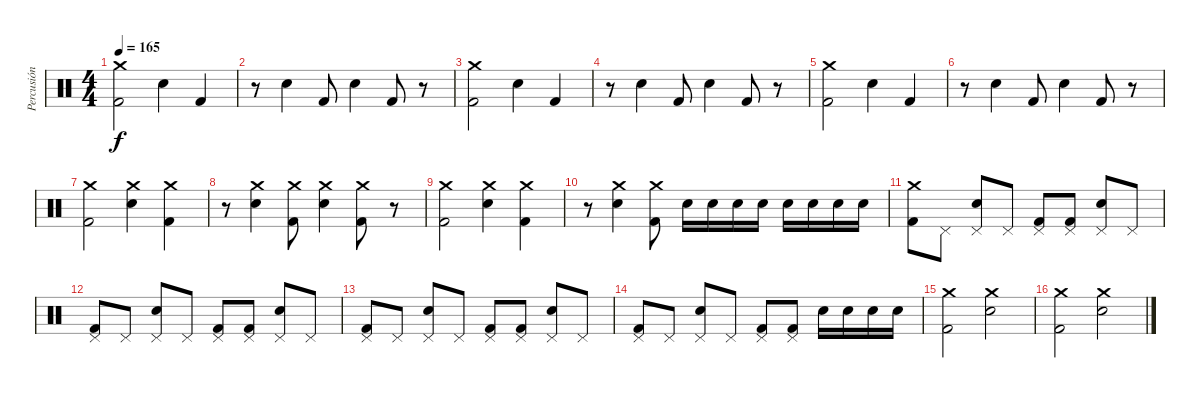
\track ("Percusión" "Percusión") {instrument percussion}
\staff {score}
\articulation defaults
\ts (4 4)
\tempo 165
\clef neutral
\ks c
("Crash medium (hit)" "Kick (hit) 2").2{dy f} "Electric Snare (hit)".4 "Kick (hit) 2".4 |
r.8 "Electric Snare (hit)".4 "Kick (hit) 2".8 "Electric Snare (hit)".4 "Kick (hit) 2".8 r.8 |
("Crash medium (hit)" "Kick (hit) 2").2 "Electric Snare (hit)".4 "Kick (hit) 2".4 |
r.8 "Electric Snare (hit)".4 "Kick (hit) 2".8 "Electric Snare (hit)".4 "Kick (hit) 2".8 r.8 |
("Crash medium (hit)" "Kick (hit) 2").2 "Electric Snare (hit)".4 "Kick (hit) 2".4 |
r.8 "Electric Snare (hit)".4 "Kick (hit) 2".8 "Electric Snare (hit)".4 "Kick (hit) 2".8 r.8 |
("Crash medium (hit)" "Kick (hit) 2").2 ("Crash medium (hit)" "Electric Snare (hit)").4 ("Crash medium (hit)" "Kick (hit) 2").4 |
r.8 ("Crash medium (hit)" "Electric Snare (hit)").4 ("Crash medium (hit)" "Kick (hit) 2").8 ("Crash medium (hit)" "Electric Snare (hit)").4 ("Crash medium (hit)" "Kick (hit) 2").8 r.8 |
("Crash medium (hit)" "Kick (hit) 2").2 ("Crash medium (hit)" "Electric Snare (hit)").4 ("Crash medium (hit)" "Kick (hit) 2").4 |
r.8 ("Crash medium (hit)" "Electric Snare (hit)").4 ("Crash medium (hit)" "Kick (hit) 2").8 "Electric Snare (hit)".16 "Electric Snare (hit)".16 "Electric Snare (hit)".16 "Electric Snare (hit)".16 "Electric Snare (hit)".16 "Electric Snare (hit)".16 "Electric Snare (hit)".16 "Electric Snare (hit)".16 |
("Crash medium (hit)" "Kick (hit) 2").8 "Pedal Hi-Hat (hit)".8 ("Pedal Hi-Hat (hit)" "Electric Snare (hit)").8 "Pedal Hi-Hat (hit)".8 ("Pedal Hi-Hat (hit)" "Kick (hit) 2").8 ("Pedal Hi-Hat (hit)" "Kick (hit) 2").8 ("Pedal Hi-Hat (hit)" "Electric Snare (hit)").8 "Pedal Hi-Hat (hit)".8 |
("Pedal Hi-Hat (hit)" "Kick (hit) 2").8 "Pedal Hi-Hat (hit)".8 ("Pedal Hi-Hat (hit)" "Electric Snare (hit)").8 "Pedal Hi-Hat (hit)".8 ("Pedal Hi-Hat (hit)" "Kick (hit) 2").8 ("Pedal Hi-Hat (hit)" "Kick (hit) 2").8 ("Pedal Hi-Hat (hit)" "Electric Snare (hit)").8 "Pedal Hi-Hat (hit)".8 |
("Pedal Hi-Hat (hit)" "Kick (hit) 2").8 "Pedal Hi-Hat (hit)".8 ("Pedal Hi-Hat (hit)" "Electric Snare (hit)").8 "Pedal Hi-Hat (hit)".8 ("Pedal Hi-Hat (hit)" "Kick (hit) 2").8 ("Pedal Hi-Hat (hit)" "Kick (hit) 2").8 ("Pedal Hi-Hat (hit)" "Electric Snare (hit)").8 "Pedal Hi-Hat (hit)".8 |
("Pedal Hi-Hat (hit)" "Kick (hit) 2").8 "Pedal Hi-Hat (hit)".8 ("Pedal Hi-Hat (hit)" "Electric Snare (hit)").8 "Pedal Hi-Hat (hit)".8 ("Pedal Hi-Hat (hit)" "Kick (hit) 2").8 ("Pedal Hi-Hat (hit)" "Kick (hit) 2").8 "Electric Snare (hit)".16 "Electric Snare (hit)".16 "Electric Snare (hit)".16 "Electric Snare (hit)".16 |
("Crash medium (hit)" "Kick (hit) 2").2 ("Crash medium (hit)" "Electric Snare (hit)").2 |
("Crash medium (hit)" "Kick (hit) 2").2 ("Crash medium (hit)" "Electric Snare (hit)").2
